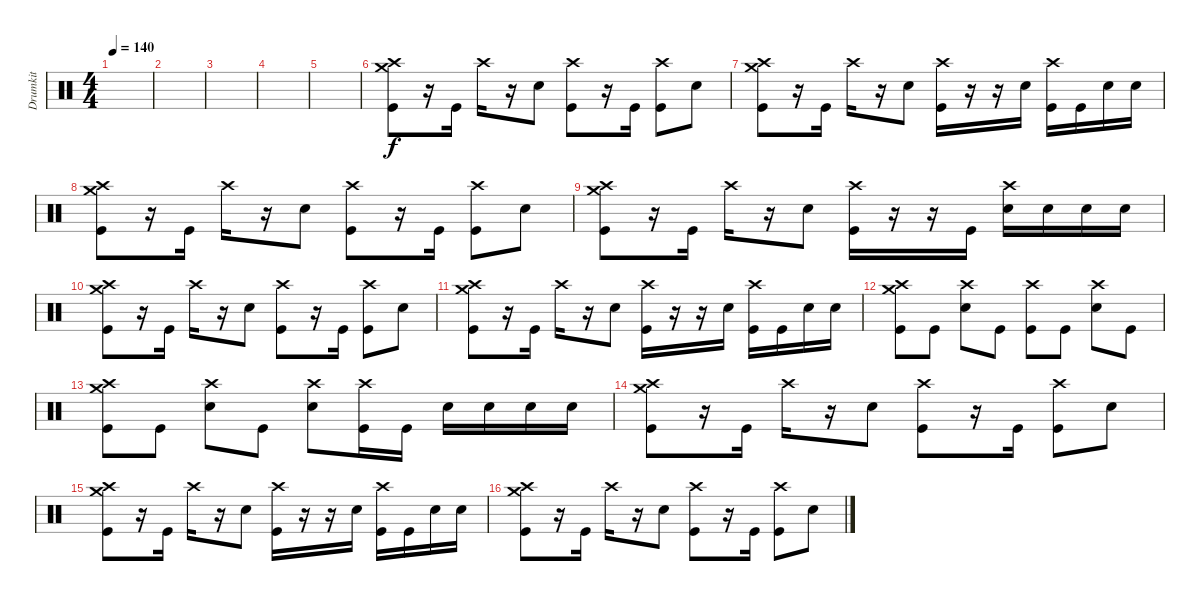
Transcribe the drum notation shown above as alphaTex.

\track ("Drumkit" "Drumkit") {instrument percussion}
\staff {score}
\articulation defaults
\ts (4 4)
\tempo 140
\clef neutral
\ks c
|
|
|
|
|
("Crash high (hit)" "Crash medium (hit)" "Kick (hit)").8 r.16 "Kick (hit)".16 "Crash high (hit)".16 r.16 "Snare (hit) 2".8 ("Kick (hit)" "Crash high (hit)").8 r.16 "Kick (hit)".16 ("Kick (hit)" "Crash high (hit)").8 "Snare (hit) 2".8 |
("Crash high (hit)" "Crash medium (hit)" "Kick (hit)").8 r.16 "Kick (hit)".16 "Crash high (hit)".16 r.16 "Snare (hit) 2".8 ("Kick (hit)" "Crash high (hit)").16 r.16 r.16 "Snare (hit) 2".16 ("Kick (hit)" "Crash high (hit)").16 "Kick (hit)".16 "Snare (hit) 2".16 "Snare (hit) 2".16 |
("Crash high (hit)" "Crash medium (hit)" "Kick (hit)").8 r.16 "Kick (hit)".16 "Crash high (hit)".16 r.16 "Snare (hit) 2".8 ("Kick (hit)" "Crash high (hit)").8 r.16 "Kick (hit)".16 ("Kick (hit)" "Crash high (hit)").8 "Snare (hit) 2".8 |
("Crash high (hit)" "Crash medium (hit)" "Kick (hit)").8 r.16 "Kick (hit)".16 "Crash high (hit)".16 r.16 "Snare (hit) 2".8 ("Kick (hit)" "Crash high (hit)").16 r.16 r.16 "Kick (hit)".16 ("Crash high (hit)" "Snare (hit) 2").16 "Snare (hit) 2".16 "Snare (hit) 2".16 "Snare (hit) 2".16 |
("Crash high (hit)" "Crash medium (hit)" "Kick (hit)").8 r.16 "Kick (hit)".16 "Crash high (hit)".16 r.16 "Snare (hit) 2".8 ("Kick (hit)" "Crash high (hit)").8 r.16 "Kick (hit)".16 ("Kick (hit)" "Crash high (hit)").8 "Snare (hit) 2".8 |
("Crash high (hit)" "Crash medium (hit)" "Kick (hit)").8 r.16 "Kick (hit)".16 "Crash high (hit)".16 r.16 "Snare (hit) 2".8 ("Kick (hit)" "Crash high (hit)").16 r.16 r.16 "Snare (hit) 2".16 ("Kick (hit)" "Crash high (hit)").16 "Kick (hit)".16 "Snare (hit) 2".16 "Snare (hit) 2".16 |
("Crash high (hit)" "Crash medium (hit)" "Kick (hit)").8 "Kick (hit)".8 ("Snare (hit) 2" "Crash high (hit)").8 "Kick (hit)".8 ("Kick (hit)" "Crash high (hit)").8 "Kick (hit)".8 ("Snare (hit) 2" "Crash high (hit)").8 "Kick (hit)".8 |
("Crash high (hit)" "Crash medium (hit)" "Kick (hit)").8 "Kick (hit)".8 ("Snare (hit) 2" "Crash high (hit)").8 "Kick (hit)".8 ("Crash high (hit)" "Snare (hit) 2").8 ("Crash high (hit)" "Kick (hit)").16 "Kick (hit)".16 "Snare (hit) 2".16 "Snare (hit) 2".16 "Snare (hit) 2".16 "Snare (hit) 2".16 |
("Crash high (hit)" "Crash medium (hit)" "Kick (hit)").8 r.16 "Kick (hit)".16 "Crash high (hit)".16 r.16 "Snare (hit) 2".8 ("Kick (hit)" "Crash high (hit)").8 r.16 "Kick (hit)".16 ("Kick (hit)" "Crash high (hit)").8 "Snare (hit) 2".8 |
("Crash high (hit)" "Crash medium (hit)" "Kick (hit)").8 r.16 "Kick (hit)".16 "Crash high (hit)".16 r.16 "Snare (hit) 2".8 ("Kick (hit)" "Crash high (hit)").16 r.16 r.16 "Snare (hit) 2".16 ("Kick (hit)" "Crash high (hit)").16 "Kick (hit)".16 "Snare (hit) 2".16 "Snare (hit) 2".16 |
("Crash high (hit)" "Crash medium (hit)" "Kick (hit)").8 r.16 "Kick (hit)".16 "Crash high (hit)".16 r.16 "Snare (hit) 2".8 ("Kick (hit)" "Crash high (hit)").8 r.16 "Kick (hit)".16 ("Kick (hit)" "Crash high (hit)").8 "Snare (hit) 2".8
